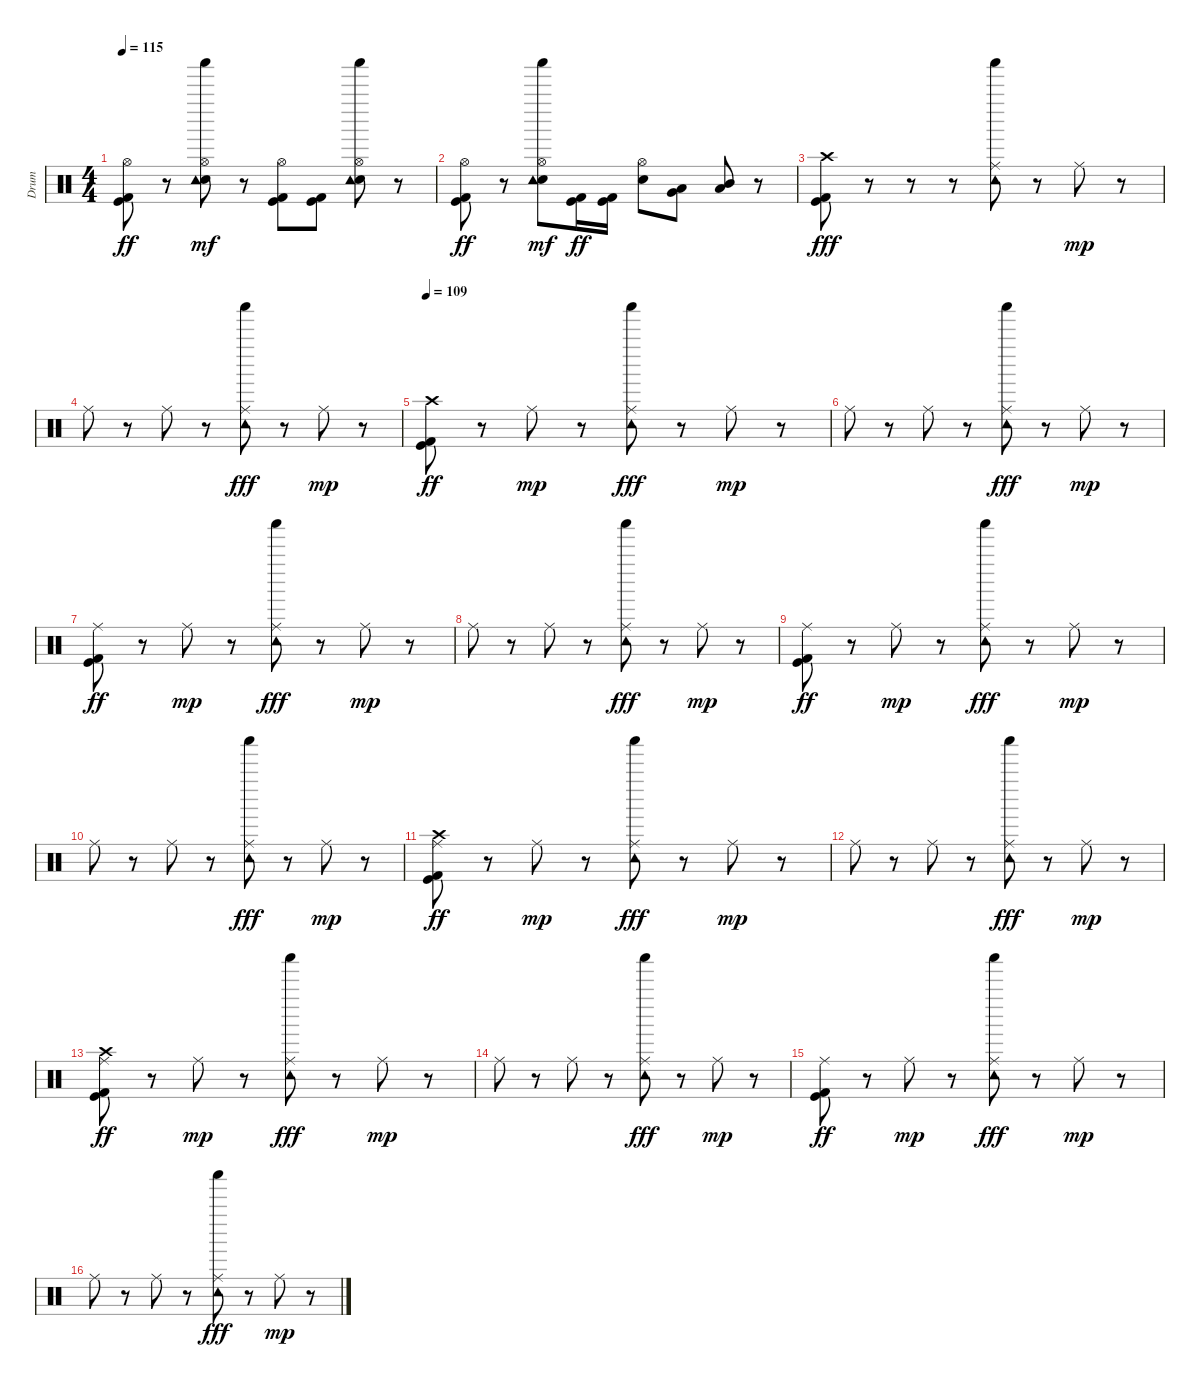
\track ("Drum" "Drum") {instrument percussion}
\staff {score}
\articulation defaults
\ts (4 4)
\tempo 115
\clef neutral
\ks c
("Hi-Hat (open)" "Kick (hit)" "Kick (hit) 2").8{dy ff} r.8 ("Hi-Hat (open)" "Shaker (hit)" "Snare (hit) 2" "Tambourine (hit)").8{dy mf} r.8 ("Hi-Hat (open)" "Kick (hit)" "Kick (hit) 2").8 ("Kick (hit)" "Kick (hit) 2").8 ("Hi-Hat (open)" "Shaker (hit)" "Snare (hit) 2" "Tambourine (hit)").8 r.8 |
("Hi-Hat (open)" "Kick (hit)" "Kick (hit) 2").8{dy ff} r.8 ("Hi-Hat (open)" "Shaker (hit)" "Snare (hit) 2" "Tambourine (hit)").8{dy mf} ("Kick (hit)" "Kick (hit) 2").16{dy ff} ("Kick (hit)" "Kick (hit) 2").16 ("Hi-Hat (open)" "Snare (hit) 2").8 ("Very Low Tom (hit)" "Low Floor Tom (hit)").8 ("Mid Tom (hit)" "Low Tom (hit)").8 r.8 |
("Crash high (hit)" "Kick (hit)" "Kick (hit) 2").8{dy fff} r.8 r.8 r.8 ("Ride (middle)" "Shaker (hit)" "Tambourine (hit)").8 r.8 "Ride (middle)".8{dy mp} r.8 |
"Ride (middle)".8 r.8 "Ride (middle)".8 r.8 ("Ride (middle)" "Shaker (hit)" "Tambourine (hit)").8{dy fff} r.8 "Ride (middle)".8{dy mp} r.8 |
\tempo 109
("Crash high (hit)" "Kick (hit)" "Kick (hit) 2").8{dy ff} r.8 "Ride (middle)".8{dy mp} r.8 ("Ride (middle)" "Shaker (hit)" "Tambourine (hit)").8{dy fff} r.8 "Ride (middle)".8{dy mp} r.8 |
"Ride (middle)".8 r.8 "Ride (middle)".8 r.8 ("Ride (middle)" "Shaker (hit)" "Tambourine (hit)").8{dy fff} r.8 "Ride (middle)".8{dy mp} r.8 |
("Ride (middle)" "Kick (hit)" "Kick (hit) 2").8{dy ff} r.8 "Ride (middle)".8{dy mp} r.8 ("Ride (middle)" "Shaker (hit)" "Tambourine (hit)").8{dy fff} r.8 "Ride (middle)".8{dy mp} r.8 |
"Ride (middle)".8 r.8 "Ride (middle)".8 r.8 ("Ride (middle)" "Shaker (hit)" "Tambourine (hit)").8{dy fff} r.8 "Ride (middle)".8{dy mp} r.8 |
("Ride (middle)" "Kick (hit)" "Kick (hit) 2").8{dy ff} r.8 "Ride (middle)".8{dy mp} r.8 ("Ride (middle)" "Shaker (hit)" "Tambourine (hit)").8{dy fff} r.8 "Ride (middle)".8{dy mp} r.8 |
"Ride (middle)".8 r.8 "Ride (middle)".8 r.8 ("Ride (middle)" "Shaker (hit)" "Tambourine (hit)").8{dy fff} r.8 "Ride (middle)".8{dy mp} r.8 |
("Ride (middle)" "Crash high (hit)" "Kick (hit)" "Kick (hit) 2").8{dy ff} r.8 "Ride (middle)".8{dy mp} r.8 ("Ride (middle)" "Shaker (hit)" "Tambourine (hit)").8{dy fff} r.8 "Ride (middle)".8{dy mp} r.8 |
"Ride (middle)".8 r.8 "Ride (middle)".8 r.8 ("Ride (middle)" "Shaker (hit)" "Tambourine (hit)").8{dy fff} r.8 "Ride (middle)".8{dy mp} r.8 |
("Ride (middle)" "Crash high (hit)" "Kick (hit)" "Kick (hit) 2").8{dy ff} r.8 "Ride (middle)".8{dy mp} r.8 ("Ride (middle)" "Shaker (hit)" "Tambourine (hit)").8{dy fff} r.8 "Ride (middle)".8{dy mp} r.8 |
"Ride (middle)".8 r.8 "Ride (middle)".8 r.8 ("Ride (middle)" "Shaker (hit)" "Tambourine (hit)").8{dy fff} r.8 "Ride (middle)".8{dy mp} r.8 |
("Ride (middle)" "Kick (hit)" "Kick (hit) 2").8{dy ff} r.8 "Ride (middle)".8{dy mp} r.8 ("Ride (middle)" "Shaker (hit)" "Tambourine (hit)").8{dy fff} r.8 "Ride (middle)".8{dy mp} r.8 |
"Ride (middle)".8 r.8 "Ride (middle)".8 r.8 ("Ride (middle)" "Shaker (hit)" "Tambourine (hit)").8{dy fff} r.8 "Ride (middle)".8{dy mp} r.8
